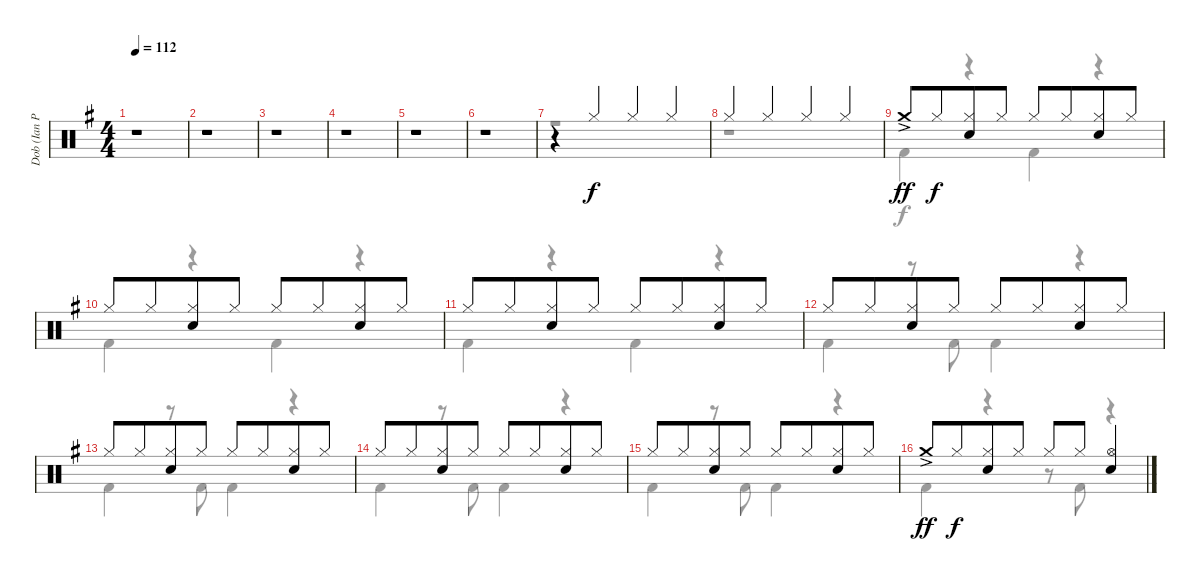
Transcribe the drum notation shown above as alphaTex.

\track ("Dob (Ian Paice)" "Dob (Ian P") {instrument percussion}
\staff {score}
\articulation defaults
\voice
\ts (4 4)
\tempo 112
\clef neutral
\ks g
r.1{dy f} |
r.1 |
r.1 |
r.1 |
r.1 |
r.1 |
r.4 "Hi-Hat (closed)".4 "Hi-Hat (closed)".4 "Hi-Hat (closed)".4 |
"Hi-Hat (closed)".4 "Hi-Hat (closed)".4 "Hi-Hat (closed)".4 "Hi-Hat (closed)".4 |
"Crash medium (hit)"{ac}.8{dy ff} "Hi-Hat (closed)".8{dy f beam merge} ("Hi-Hat (closed)" "Electric Snare (hit)").8 "Hi-Hat (closed)".8 "Hi-Hat (closed)".8 "Hi-Hat (closed)".8{beam merge} ("Hi-Hat (closed)" "Electric Snare (hit)").8 "Hi-Hat (closed)".8 |
"Hi-Hat (closed)".8 "Hi-Hat (closed)".8{beam merge} ("Hi-Hat (closed)" "Electric Snare (hit)").8 "Hi-Hat (closed)".8 "Hi-Hat (closed)".8 "Hi-Hat (closed)".8{beam merge} ("Hi-Hat (closed)" "Electric Snare (hit)").8 "Hi-Hat (closed)".8 |
"Hi-Hat (closed)".8 "Hi-Hat (closed)".8{beam merge} ("Hi-Hat (closed)" "Electric Snare (hit)").8 "Hi-Hat (closed)".8 "Hi-Hat (closed)".8 "Hi-Hat (closed)".8{beam merge} ("Hi-Hat (closed)" "Electric Snare (hit)").8 "Hi-Hat (closed)".8 |
"Hi-Hat (closed)".8 "Hi-Hat (closed)".8{beam merge} ("Hi-Hat (closed)" "Electric Snare (hit)").8 "Hi-Hat (closed)".8 "Hi-Hat (closed)".8 "Hi-Hat (closed)".8{beam merge} ("Hi-Hat (closed)" "Electric Snare (hit)").8 "Hi-Hat (closed)".8 |
"Hi-Hat (closed)".8 "Hi-Hat (closed)".8{beam merge} ("Hi-Hat (closed)" "Electric Snare (hit)").8 "Hi-Hat (closed)".8 "Hi-Hat (closed)".8 "Hi-Hat (closed)".8{beam merge} ("Hi-Hat (closed)" "Electric Snare (hit)").8 "Hi-Hat (closed)".8 |
"Hi-Hat (closed)".8 "Hi-Hat (closed)".8{beam merge} ("Hi-Hat (closed)" "Electric Snare (hit)").8 "Hi-Hat (closed)".8 "Hi-Hat (closed)".8 "Hi-Hat (closed)".8{beam merge} ("Hi-Hat (closed)" "Electric Snare (hit)").8 "Hi-Hat (closed)".8 |
"Hi-Hat (closed)".8 "Hi-Hat (closed)".8{beam merge} ("Hi-Hat (closed)" "Electric Snare (hit)").8 "Hi-Hat (closed)".8 "Hi-Hat (closed)".8 "Hi-Hat (closed)".8{beam merge} ("Hi-Hat (closed)" "Electric Snare (hit)").8 "Hi-Hat (closed)".8 |
"Crash medium (hit)"{ac}.8{dy ff} "Hi-Hat (closed)".8{dy f beam merge} ("Hi-Hat (closed)" "Electric Snare (hit)").8 "Hi-Hat (closed)".8 "Hi-Hat (closed)".8 "Hi-Hat (closed)".8 ("Hi-Hat (open)" "Electric Snare (hit)").4
\voice
\clef neutral
\ottava regular
\simile none
\ks g
|
|
|
|
|
|
r.1 |
r.1 |
"Kick (hit) 2".4 r.4 "Kick (hit) 2".4 r.4 |
"Kick (hit) 2".4 r.4 "Kick (hit) 2".4 r.4 |
"Kick (hit) 2".4 r.4 "Kick (hit) 2".4 r.4 |
"Kick (hit) 2".4 r.8 "Kick (hit) 2".8 "Kick (hit) 2".4 r.4 |
"Kick (hit) 2".4 r.8 "Kick (hit) 2".8 "Kick (hit) 2".4 r.4 |
"Kick (hit) 2".4 r.8 "Kick (hit) 2".8 "Kick (hit) 2".4 r.4 |
"Kick (hit) 2".4 r.8 "Kick (hit) 2".8 "Kick (hit) 2".4 r.4 |
"Kick (hit) 2".4 r.4 r.8 "Kick (hit) 2".8 r.4
